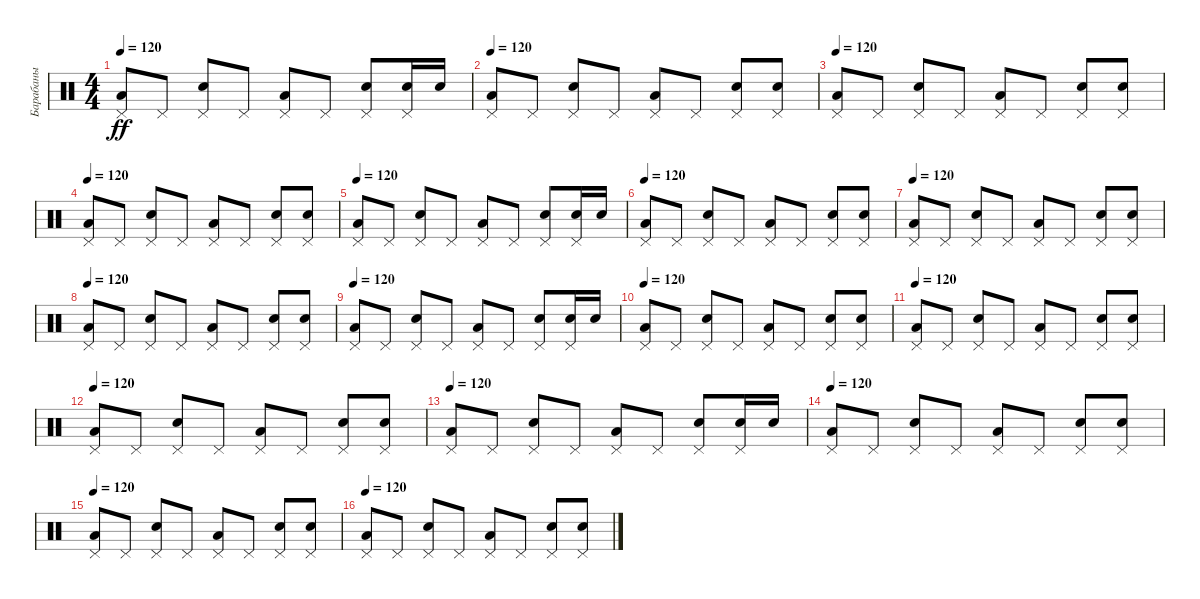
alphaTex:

\track ("Барабаны" "Барабаны") {instrument percussion}
\staff {score}
\articulation defaults
\ts (4 4)
\tempo 120
\clef neutral
\ks c
("Low Floor Tom (hit)" "Pedal Hi-Hat (hit)").8{dy ff} "Pedal Hi-Hat (hit)".8 ("Electric Snare (hit)" "Pedal Hi-Hat (hit)").8 "Pedal Hi-Hat (hit)".8 ("Low Floor Tom (hit)" "Pedal Hi-Hat (hit)").8 "Pedal Hi-Hat (hit)".8 ("Electric Snare (hit)" "Pedal Hi-Hat (hit)").8 ("Electric Snare (hit)" "Pedal Hi-Hat (hit)").16 "Electric Snare (hit)".16 |
\tempo 120
("Low Floor Tom (hit)" "Pedal Hi-Hat (hit)").8 "Pedal Hi-Hat (hit)".8 ("Electric Snare (hit)" "Pedal Hi-Hat (hit)").8 "Pedal Hi-Hat (hit)".8 ("Low Floor Tom (hit)" "Pedal Hi-Hat (hit)").8 "Pedal Hi-Hat (hit)".8 ("Electric Snare (hit)" "Pedal Hi-Hat (hit)").8 ("Electric Snare (hit)" "Pedal Hi-Hat (hit)").8 |
\tempo 120
("Low Floor Tom (hit)" "Pedal Hi-Hat (hit)").8 "Pedal Hi-Hat (hit)".8 ("Electric Snare (hit)" "Pedal Hi-Hat (hit)").8 "Pedal Hi-Hat (hit)".8 ("Low Floor Tom (hit)" "Pedal Hi-Hat (hit)").8 "Pedal Hi-Hat (hit)".8 ("Electric Snare (hit)" "Pedal Hi-Hat (hit)").8 ("Electric Snare (hit)" "Pedal Hi-Hat (hit)").8 |
\tempo 120
("Low Floor Tom (hit)" "Pedal Hi-Hat (hit)").8 "Pedal Hi-Hat (hit)".8 ("Electric Snare (hit)" "Pedal Hi-Hat (hit)").8 "Pedal Hi-Hat (hit)".8 ("Low Floor Tom (hit)" "Pedal Hi-Hat (hit)").8 "Pedal Hi-Hat (hit)".8 ("Electric Snare (hit)" "Pedal Hi-Hat (hit)").8 ("Electric Snare (hit)" "Pedal Hi-Hat (hit)").8 |
\tempo 120
("Low Floor Tom (hit)" "Pedal Hi-Hat (hit)").8 "Pedal Hi-Hat (hit)".8 ("Electric Snare (hit)" "Pedal Hi-Hat (hit)").8 "Pedal Hi-Hat (hit)".8 ("Low Floor Tom (hit)" "Pedal Hi-Hat (hit)").8 "Pedal Hi-Hat (hit)".8 ("Electric Snare (hit)" "Pedal Hi-Hat (hit)").8 ("Electric Snare (hit)" "Pedal Hi-Hat (hit)").16 "Electric Snare (hit)".16 |
\tempo 120
("Low Floor Tom (hit)" "Pedal Hi-Hat (hit)").8 "Pedal Hi-Hat (hit)".8 ("Electric Snare (hit)" "Pedal Hi-Hat (hit)").8 "Pedal Hi-Hat (hit)".8 ("Low Floor Tom (hit)" "Pedal Hi-Hat (hit)").8 "Pedal Hi-Hat (hit)".8 ("Electric Snare (hit)" "Pedal Hi-Hat (hit)").8 ("Electric Snare (hit)" "Pedal Hi-Hat (hit)").8 |
\tempo 120
("Low Floor Tom (hit)" "Pedal Hi-Hat (hit)").8 "Pedal Hi-Hat (hit)".8 ("Electric Snare (hit)" "Pedal Hi-Hat (hit)").8 "Pedal Hi-Hat (hit)".8 ("Low Floor Tom (hit)" "Pedal Hi-Hat (hit)").8 "Pedal Hi-Hat (hit)".8 ("Electric Snare (hit)" "Pedal Hi-Hat (hit)").8 ("Electric Snare (hit)" "Pedal Hi-Hat (hit)").8 |
\tempo 120
("Low Floor Tom (hit)" "Pedal Hi-Hat (hit)").8 "Pedal Hi-Hat (hit)".8 ("Electric Snare (hit)" "Pedal Hi-Hat (hit)").8 "Pedal Hi-Hat (hit)".8 ("Low Floor Tom (hit)" "Pedal Hi-Hat (hit)").8 "Pedal Hi-Hat (hit)".8 ("Electric Snare (hit)" "Pedal Hi-Hat (hit)").8 ("Electric Snare (hit)" "Pedal Hi-Hat (hit)").8 |
\tempo 120
("Low Floor Tom (hit)" "Pedal Hi-Hat (hit)").8 "Pedal Hi-Hat (hit)".8 ("Electric Snare (hit)" "Pedal Hi-Hat (hit)").8 "Pedal Hi-Hat (hit)".8 ("Low Floor Tom (hit)" "Pedal Hi-Hat (hit)").8 "Pedal Hi-Hat (hit)".8 ("Electric Snare (hit)" "Pedal Hi-Hat (hit)").8 ("Electric Snare (hit)" "Pedal Hi-Hat (hit)").16 "Electric Snare (hit)".16 |
\tempo 120
("Low Floor Tom (hit)" "Pedal Hi-Hat (hit)").8 "Pedal Hi-Hat (hit)".8 ("Electric Snare (hit)" "Pedal Hi-Hat (hit)").8 "Pedal Hi-Hat (hit)".8 ("Low Floor Tom (hit)" "Pedal Hi-Hat (hit)").8 "Pedal Hi-Hat (hit)".8 ("Electric Snare (hit)" "Pedal Hi-Hat (hit)").8 ("Electric Snare (hit)" "Pedal Hi-Hat (hit)").8 |
\tempo 120
("Low Floor Tom (hit)" "Pedal Hi-Hat (hit)").8 "Pedal Hi-Hat (hit)".8 ("Electric Snare (hit)" "Pedal Hi-Hat (hit)").8 "Pedal Hi-Hat (hit)".8 ("Low Floor Tom (hit)" "Pedal Hi-Hat (hit)").8 "Pedal Hi-Hat (hit)".8 ("Electric Snare (hit)" "Pedal Hi-Hat (hit)").8 ("Electric Snare (hit)" "Pedal Hi-Hat (hit)").8 |
\tempo 120
("Low Floor Tom (hit)" "Pedal Hi-Hat (hit)").8 "Pedal Hi-Hat (hit)".8 ("Electric Snare (hit)" "Pedal Hi-Hat (hit)").8 "Pedal Hi-Hat (hit)".8 ("Low Floor Tom (hit)" "Pedal Hi-Hat (hit)").8 "Pedal Hi-Hat (hit)".8 ("Electric Snare (hit)" "Pedal Hi-Hat (hit)").8 ("Electric Snare (hit)" "Pedal Hi-Hat (hit)").8 |
\tempo 120
("Low Floor Tom (hit)" "Pedal Hi-Hat (hit)").8 "Pedal Hi-Hat (hit)".8 ("Electric Snare (hit)" "Pedal Hi-Hat (hit)").8 "Pedal Hi-Hat (hit)".8 ("Low Floor Tom (hit)" "Pedal Hi-Hat (hit)").8 "Pedal Hi-Hat (hit)".8 ("Electric Snare (hit)" "Pedal Hi-Hat (hit)").8 ("Electric Snare (hit)" "Pedal Hi-Hat (hit)").16 "Electric Snare (hit)".16 |
\tempo 120
("Low Floor Tom (hit)" "Pedal Hi-Hat (hit)").8 "Pedal Hi-Hat (hit)".8 ("Electric Snare (hit)" "Pedal Hi-Hat (hit)").8 "Pedal Hi-Hat (hit)".8 ("Low Floor Tom (hit)" "Pedal Hi-Hat (hit)").8 "Pedal Hi-Hat (hit)".8 ("Electric Snare (hit)" "Pedal Hi-Hat (hit)").8 ("Electric Snare (hit)" "Pedal Hi-Hat (hit)").8 |
\tempo 120
("Low Floor Tom (hit)" "Pedal Hi-Hat (hit)").8 "Pedal Hi-Hat (hit)".8 ("Electric Snare (hit)" "Pedal Hi-Hat (hit)").8 "Pedal Hi-Hat (hit)".8 ("Low Floor Tom (hit)" "Pedal Hi-Hat (hit)").8 "Pedal Hi-Hat (hit)".8 ("Electric Snare (hit)" "Pedal Hi-Hat (hit)").8 ("Electric Snare (hit)" "Pedal Hi-Hat (hit)").8 |
\tempo 120
("Low Floor Tom (hit)" "Pedal Hi-Hat (hit)").8 "Pedal Hi-Hat (hit)".8 ("Electric Snare (hit)" "Pedal Hi-Hat (hit)").8 "Pedal Hi-Hat (hit)".8 ("Low Floor Tom (hit)" "Pedal Hi-Hat (hit)").8 "Pedal Hi-Hat (hit)".8 ("Electric Snare (hit)" "Pedal Hi-Hat (hit)").8 ("Electric Snare (hit)" "Pedal Hi-Hat (hit)").8
